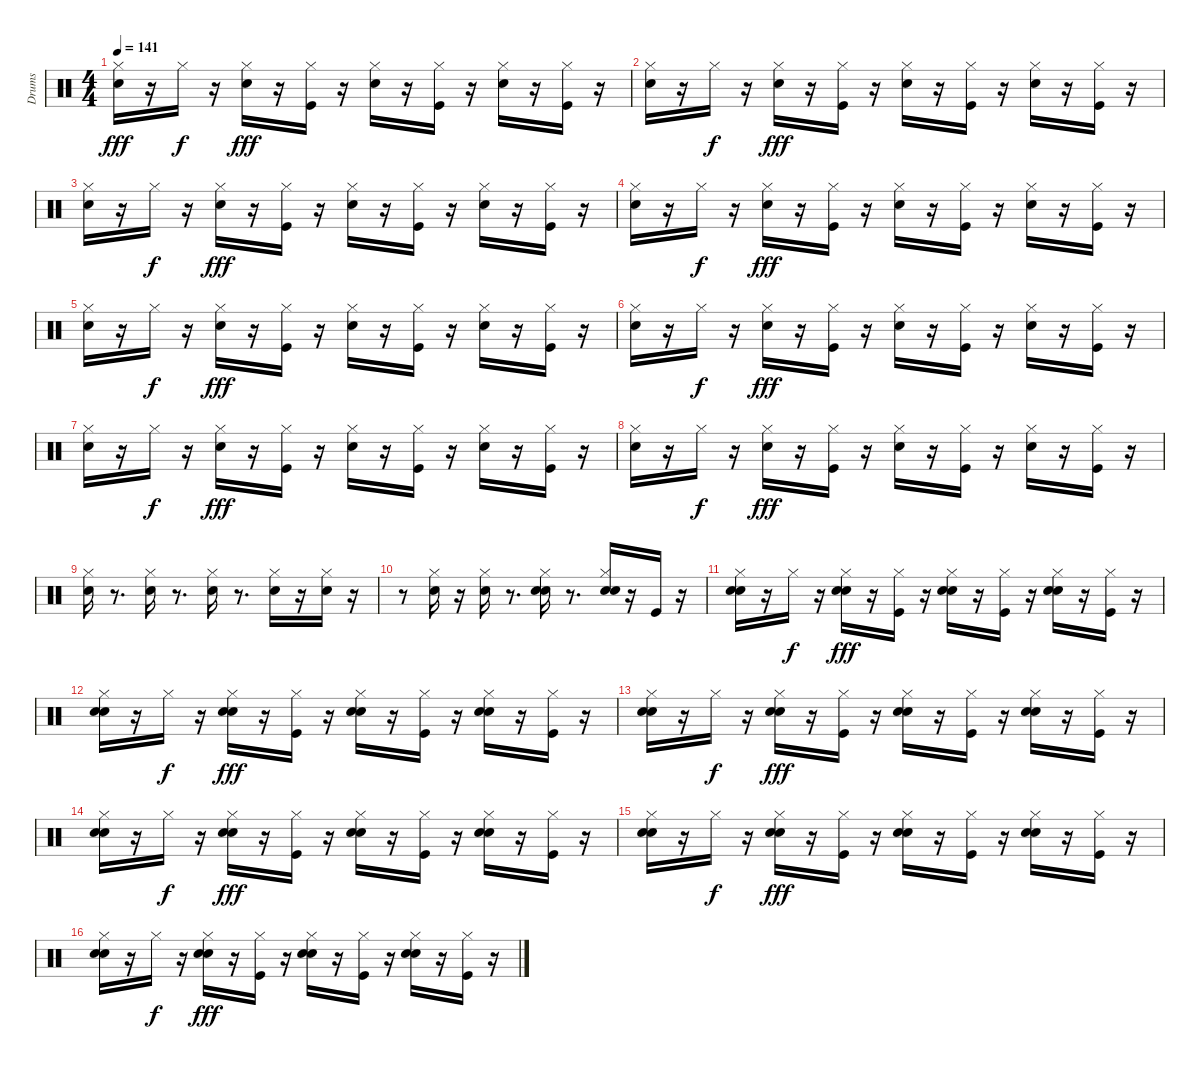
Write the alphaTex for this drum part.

\track ("Drums" "Drums") {instrument percussion}
\staff {score}
\articulation defaults
\ts (4 4)
\tempo 141
\clef neutral
\ks c
("Electric Snare (hit)" "Hi-Hat (closed)").16{dy fff} r.16 "Hi-Hat (closed)".16{dy f} r.16 ("Electric Snare (hit)" "Hi-Hat (closed)").16{dy fff} r.16 ("Kick (hit)" "Hi-Hat (closed)").16 r.16 ("Electric Snare (hit)" "Hi-Hat (closed)").16 r.16 ("Kick (hit)" "Hi-Hat (closed)").16 r.16 ("Electric Snare (hit)" "Hi-Hat (closed)").16 r.16 ("Kick (hit)" "Hi-Hat (closed)").16 r.16 |
("Electric Snare (hit)" "Hi-Hat (closed)").16 r.16 "Hi-Hat (closed)".16{dy f} r.16 ("Electric Snare (hit)" "Hi-Hat (closed)").16{dy fff} r.16 ("Kick (hit)" "Hi-Hat (closed)").16 r.16 ("Electric Snare (hit)" "Hi-Hat (closed)").16 r.16 ("Kick (hit)" "Hi-Hat (closed)").16 r.16 ("Electric Snare (hit)" "Hi-Hat (closed)").16 r.16 ("Kick (hit)" "Hi-Hat (closed)").16 r.16 |
("Electric Snare (hit)" "Hi-Hat (closed)").16 r.16 "Hi-Hat (closed)".16{dy f} r.16 ("Electric Snare (hit)" "Hi-Hat (closed)").16{dy fff} r.16 ("Kick (hit)" "Hi-Hat (closed)").16 r.16 ("Electric Snare (hit)" "Hi-Hat (closed)").16 r.16 ("Kick (hit)" "Hi-Hat (closed)").16 r.16 ("Electric Snare (hit)" "Hi-Hat (closed)").16 r.16 ("Kick (hit)" "Hi-Hat (closed)").16 r.16 |
("Electric Snare (hit)" "Hi-Hat (closed)").16 r.16 "Hi-Hat (closed)".16{dy f} r.16 ("Electric Snare (hit)" "Hi-Hat (closed)").16{dy fff} r.16 ("Kick (hit)" "Hi-Hat (closed)").16 r.16 ("Electric Snare (hit)" "Hi-Hat (closed)").16 r.16 ("Kick (hit)" "Hi-Hat (closed)").16 r.16 ("Electric Snare (hit)" "Hi-Hat (closed)").16 r.16 ("Kick (hit)" "Hi-Hat (closed)").16 r.16 |
("Electric Snare (hit)" "Hi-Hat (closed)").16 r.16 "Hi-Hat (closed)".16{dy f} r.16 ("Electric Snare (hit)" "Hi-Hat (closed)").16{dy fff} r.16 ("Kick (hit)" "Hi-Hat (closed)").16 r.16 ("Electric Snare (hit)" "Hi-Hat (closed)").16 r.16 ("Kick (hit)" "Hi-Hat (closed)").16 r.16 ("Electric Snare (hit)" "Hi-Hat (closed)").16 r.16 ("Kick (hit)" "Hi-Hat (closed)").16 r.16 |
("Electric Snare (hit)" "Hi-Hat (closed)").16 r.16 "Hi-Hat (closed)".16{dy f} r.16 ("Electric Snare (hit)" "Hi-Hat (closed)").16{dy fff} r.16 ("Kick (hit)" "Hi-Hat (closed)").16 r.16 ("Electric Snare (hit)" "Hi-Hat (closed)").16 r.16 ("Kick (hit)" "Hi-Hat (closed)").16 r.16 ("Electric Snare (hit)" "Hi-Hat (closed)").16 r.16 ("Kick (hit)" "Hi-Hat (closed)").16 r.16 |
("Electric Snare (hit)" "Hi-Hat (closed)").16 r.16 "Hi-Hat (closed)".16{dy f} r.16 ("Electric Snare (hit)" "Hi-Hat (closed)").16{dy fff} r.16 ("Kick (hit)" "Hi-Hat (closed)").16 r.16 ("Electric Snare (hit)" "Hi-Hat (closed)").16 r.16 ("Kick (hit)" "Hi-Hat (closed)").16 r.16 ("Electric Snare (hit)" "Hi-Hat (closed)").16 r.16 ("Kick (hit)" "Hi-Hat (closed)").16 r.16 |
("Electric Snare (hit)" "Hi-Hat (closed)").16 r.16 "Hi-Hat (closed)".16{dy f} r.16 ("Electric Snare (hit)" "Hi-Hat (closed)").16{dy fff} r.16 ("Kick (hit)" "Hi-Hat (closed)").16 r.16 ("Electric Snare (hit)" "Hi-Hat (closed)").16 r.16 ("Kick (hit)" "Hi-Hat (closed)").16 r.16 ("Electric Snare (hit)" "Hi-Hat (closed)").16 r.16 ("Kick (hit)" "Hi-Hat (closed)").16 r.16 |
("Electric Snare (hit)" "Hi-Hat (closed)").16 r.8{d} ("Electric Snare (hit)" "Hi-Hat (closed)").16 r.8{d} ("Electric Snare (hit)" "Hi-Hat (closed)").16 r.8{d} ("Electric Snare (hit)" "Hi-Hat (closed)").16 r.16 ("Electric Snare (hit)" "Hi-Hat (closed)").16 r.16 |
r.8 ("Electric Snare (hit)" "Hi-Hat (closed)").16 r.16 ("Electric Snare (hit)" "Hi-Hat (closed)").16 r.8{d} ("Hand Clap (hit)" "Electric Snare (hit)" "Hi-Hat (closed)").16 r.8{d} ("Hand Clap (hit)" "Electric Snare (hit)" "Hi-Hat (closed)").16 r.16 "Kick (hit)".16 r.16 |
("Hand Clap (hit)" "Electric Snare (hit)" "Hi-Hat (closed)").16 r.16 "Hi-Hat (closed)".16{dy f} r.16 ("Hand Clap (hit)" "Electric Snare (hit)" "Hi-Hat (closed)").16{dy fff} r.16 ("Kick (hit)" "Hi-Hat (closed)").16 r.16 ("Hand Clap (hit)" "Electric Snare (hit)" "Hi-Hat (closed)").16 r.16 ("Kick (hit)" "Hi-Hat (closed)").16 r.16 ("Hand Clap (hit)" "Electric Snare (hit)" "Hi-Hat (closed)").16 r.16 ("Kick (hit)" "Hi-Hat (closed)").16 r.16 |
("Hand Clap (hit)" "Electric Snare (hit)" "Hi-Hat (closed)").16 r.16 "Hi-Hat (closed)".16{dy f} r.16 ("Hand Clap (hit)" "Electric Snare (hit)" "Hi-Hat (closed)").16{dy fff} r.16 ("Kick (hit)" "Hi-Hat (closed)").16 r.16 ("Hand Clap (hit)" "Electric Snare (hit)" "Hi-Hat (closed)").16 r.16 ("Kick (hit)" "Hi-Hat (closed)").16 r.16 ("Hand Clap (hit)" "Electric Snare (hit)" "Hi-Hat (closed)").16 r.16 ("Kick (hit)" "Hi-Hat (closed)").16 r.16 |
("Hand Clap (hit)" "Electric Snare (hit)" "Hi-Hat (closed)").16 r.16 "Hi-Hat (closed)".16{dy f} r.16 ("Hand Clap (hit)" "Electric Snare (hit)" "Hi-Hat (closed)").16{dy fff} r.16 ("Kick (hit)" "Hi-Hat (closed)").16 r.16 ("Hand Clap (hit)" "Electric Snare (hit)" "Hi-Hat (closed)").16 r.16 ("Kick (hit)" "Hi-Hat (closed)").16 r.16 ("Hand Clap (hit)" "Electric Snare (hit)" "Hi-Hat (closed)").16 r.16 ("Kick (hit)" "Hi-Hat (closed)").16 r.16 |
("Hand Clap (hit)" "Electric Snare (hit)" "Hi-Hat (closed)").16 r.16 "Hi-Hat (closed)".16{dy f} r.16 ("Hand Clap (hit)" "Electric Snare (hit)" "Hi-Hat (closed)").16{dy fff} r.16 ("Kick (hit)" "Hi-Hat (closed)").16 r.16 ("Hand Clap (hit)" "Electric Snare (hit)" "Hi-Hat (closed)").16 r.16 ("Kick (hit)" "Hi-Hat (closed)").16 r.16 ("Hand Clap (hit)" "Electric Snare (hit)" "Hi-Hat (closed)").16 r.16 ("Kick (hit)" "Hi-Hat (closed)").16 r.16 |
("Hand Clap (hit)" "Electric Snare (hit)" "Hi-Hat (closed)").16 r.16 "Hi-Hat (closed)".16{dy f} r.16 ("Hand Clap (hit)" "Electric Snare (hit)" "Hi-Hat (closed)").16{dy fff} r.16 ("Kick (hit)" "Hi-Hat (closed)").16 r.16 ("Hand Clap (hit)" "Electric Snare (hit)" "Hi-Hat (closed)").16 r.16 ("Kick (hit)" "Hi-Hat (closed)").16 r.16 ("Hand Clap (hit)" "Electric Snare (hit)" "Hi-Hat (closed)").16 r.16 ("Kick (hit)" "Hi-Hat (closed)").16 r.16 |
("Hand Clap (hit)" "Electric Snare (hit)" "Hi-Hat (closed)").16 r.16 "Hi-Hat (closed)".16{dy f} r.16 ("Hand Clap (hit)" "Electric Snare (hit)" "Hi-Hat (closed)").16{dy fff} r.16 ("Kick (hit)" "Hi-Hat (closed)").16 r.16 ("Hand Clap (hit)" "Electric Snare (hit)" "Hi-Hat (closed)").16 r.16 ("Kick (hit)" "Hi-Hat (closed)").16 r.16 ("Hand Clap (hit)" "Electric Snare (hit)" "Hi-Hat (closed)").16 r.16 ("Kick (hit)" "Hi-Hat (closed)").16 r.16
